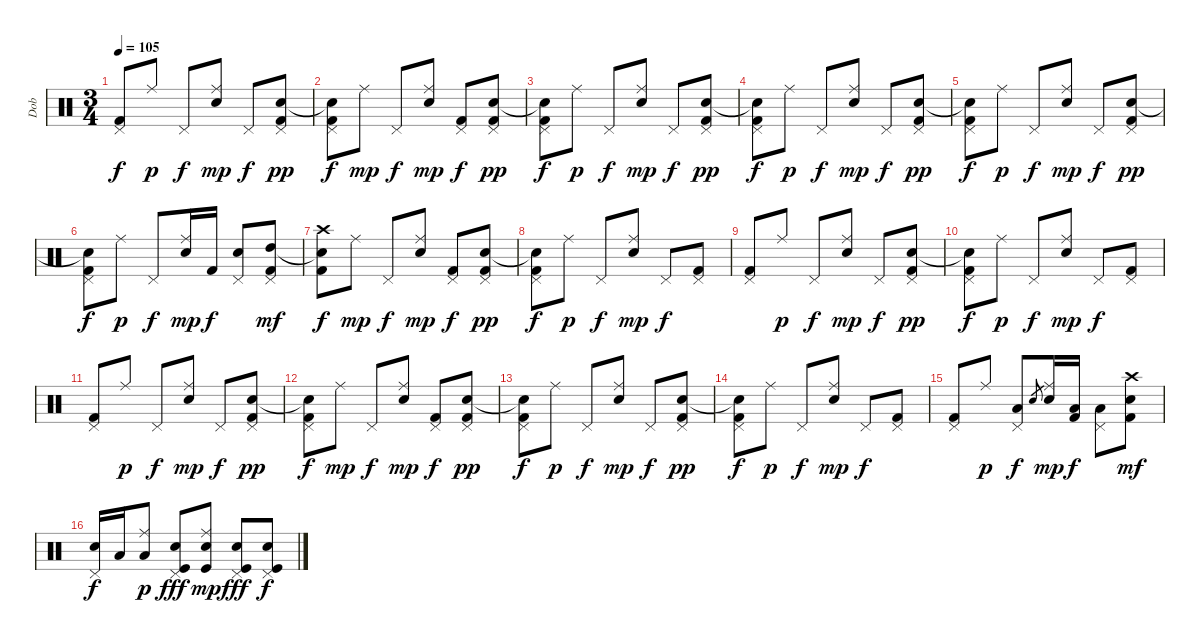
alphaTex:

\track ("Dob" "Dob") {instrument percussion}
\staff {score}
\articulation defaults
\ts (3 4)
\tempo 105
\clef neutral
\ks c
("Kick (hit) 2" "Pedal Hi-Hat (hit)").8{dy f} "Ride (middle)".8{dy p} "Pedal Hi-Hat (hit)".8{dy f} ("Electric Snare (hit)" "Ride (middle)").8{dy mp} "Pedal Hi-Hat (hit)".8{dy f} ("Electric Snare (hit)"{tr (40 32)} "Kick (hit) 2" "Pedal Hi-Hat (hit)").8{dy pp} |
("Snare (hit)"{t} "Kick (hit) 2" "Pedal Hi-Hat (hit)").8{dy f} "Ride (middle)".8{dy mp} "Pedal Hi-Hat (hit)".8{dy f} ("Electric Snare (hit)" "Ride (middle)").8{dy mp} ("Kick (hit) 2" "Pedal Hi-Hat (hit)").8{dy f} ("Electric Snare (hit)"{tr (40 32)} "Kick (hit) 2" "Pedal Hi-Hat (hit)").8{dy pp} |
("Snare (hit)"{t} "Kick (hit) 2" "Pedal Hi-Hat (hit)").8{dy f} "Ride (middle)".8{dy p} "Pedal Hi-Hat (hit)".8{dy f} ("Electric Snare (hit)" "Ride (middle)").8{dy mp} "Pedal Hi-Hat (hit)".8{dy f} ("Electric Snare (hit)"{tr (40 32)} "Kick (hit) 2" "Pedal Hi-Hat (hit)").8{dy pp} |
("Snare (hit)"{t} "Kick (hit) 2" "Pedal Hi-Hat (hit)").8{dy f} "Ride (middle)".8{dy p} "Pedal Hi-Hat (hit)".8{dy f} ("Electric Snare (hit)" "Ride (middle)").8{dy mp} "Pedal Hi-Hat (hit)".8{dy f} ("Electric Snare (hit)"{tr (40 32)} "Kick (hit) 2" "Pedal Hi-Hat (hit)").8{dy pp} |
("Snare (hit)"{t} "Kick (hit) 2" "Pedal Hi-Hat (hit)").8{dy f} "Ride (middle)".8{dy p} "Pedal Hi-Hat (hit)".8{dy f} ("Electric Snare (hit)" "Ride (middle)").8{dy mp} "Pedal Hi-Hat (hit)".8{dy f} ("Electric Snare (hit)"{tr (40 32)} "Kick (hit) 2" "Pedal Hi-Hat (hit)").8{dy pp} |
("Snare (hit)"{t} "Kick (hit) 2" "Pedal Hi-Hat (hit)").8{dy f} "Ride (middle)".8{dy p} "Pedal Hi-Hat (hit)".8{dy f} ("Electric Snare (hit)" "Ride (middle)").16{dy mp} "Kick (hit) 2".16{dy f} ("Electric Snare (hit)" "Pedal Hi-Hat (hit)").8 ("High Tom (hit)"{tr (48 16)} "Kick (hit) 2" "Pedal Hi-Hat (hit)").8{dy mf} |
("Snare (hit)"{t} "Kick (hit) 2" "Crash high (hit)").8{dy f} "Ride (middle)".8{dy mp} "Pedal Hi-Hat (hit)".8{dy f} ("Electric Snare (hit)" "Ride (middle)").8{dy mp} ("Kick (hit) 2" "Pedal Hi-Hat (hit)").8{dy f} ("Electric Snare (hit)"{tr (40 32)} "Kick (hit) 2" "Pedal Hi-Hat (hit)").8{dy pp} |
("Snare (hit)"{t} "Kick (hit) 2" "Pedal Hi-Hat (hit)").8{dy f} "Ride (middle)".8{dy p} "Pedal Hi-Hat (hit)".8{dy f} ("Electric Snare (hit)" "Ride (middle)").8{dy mp} "Pedal Hi-Hat (hit)".8{dy f} ("Kick (hit) 2" "Pedal Hi-Hat (hit)").8 |
("Kick (hit) 2" "Pedal Hi-Hat (hit)").8 "Ride (middle)".8{dy p} "Pedal Hi-Hat (hit)".8{dy f} ("Electric Snare (hit)" "Ride (middle)").8{dy mp} "Pedal Hi-Hat (hit)".8{dy f} ("Electric Snare (hit)"{tr (40 32)} "Kick (hit) 2" "Pedal Hi-Hat (hit)").8{dy pp} |
("Snare (hit)"{t} "Kick (hit) 2" "Pedal Hi-Hat (hit)").8{dy f} "Ride (middle)".8{dy p} "Pedal Hi-Hat (hit)".8{dy f} ("Electric Snare (hit)" "Ride (middle)").8{dy mp} "Pedal Hi-Hat (hit)".8{dy f} ("Kick (hit) 2" "Pedal Hi-Hat (hit)").8 |
("Kick (hit) 2" "Pedal Hi-Hat (hit)").8 "Ride (middle)".8{dy p} "Pedal Hi-Hat (hit)".8{dy f} ("Electric Snare (hit)" "Ride (middle)").8{dy mp} "Pedal Hi-Hat (hit)".8{dy f} ("Electric Snare (hit)"{tr (40 32)} "Kick (hit) 2" "Pedal Hi-Hat (hit)").8{dy pp} |
("Snare (hit)"{t} "Kick (hit) 2" "Pedal Hi-Hat (hit)").8{dy f} "Ride (middle)".8{dy mp} "Pedal Hi-Hat (hit)".8{dy f} ("Electric Snare (hit)" "Ride (middle)").8{dy mp} ("Kick (hit) 2" "Pedal Hi-Hat (hit)").8{dy f} ("Electric Snare (hit)"{tr (40 32)} "Kick (hit) 2" "Pedal Hi-Hat (hit)").8{dy pp} |
("Snare (hit)"{t} "Kick (hit) 2" "Pedal Hi-Hat (hit)").8{dy f} "Ride (middle)".8{dy p} "Pedal Hi-Hat (hit)".8{dy f} ("Electric Snare (hit)" "Ride (middle)").8{dy mp} "Pedal Hi-Hat (hit)".8{dy f} ("Electric Snare (hit)"{tr (40 32)} "Kick (hit) 2" "Pedal Hi-Hat (hit)").8{dy pp} |
("Snare (hit)"{t} "Kick (hit) 2" "Pedal Hi-Hat (hit)").8{dy f} "Ride (middle)".8{dy p} "Pedal Hi-Hat (hit)".8{dy f} ("Electric Snare (hit)" "Ride (middle)").8{dy mp} "Pedal Hi-Hat (hit)".8{dy f} ("Kick (hit) 2" "Pedal Hi-Hat (hit)").8 |
("Kick (hit) 2" "Pedal Hi-Hat (hit)").8 "Ride (middle)".8{dy p} ("Low Tom (hit)" "Pedal Hi-Hat (hit)").8{dy f} "Electric Snare (hit)".8{gr} ("Electric Snare (hit)" "Ride (middle)").16{dy mp} ("Low Tom (hit)" "Kick (hit) 2").16{dy f} ("Low Tom (hit)" "Pedal Hi-Hat (hit)").8 ("Electric Snare (hit)" "Kick (hit) 2" "Crash high (hit)").8{dy mf} |
("Electric Snare (hit)" "Pedal Hi-Hat (hit)").16{dy f} "Low Tom (hit)".16 ("Low Tom (hit)" "Ride (middle)").8{dy p} ("Electric Snare (hit)" "Kick (hit)" "Pedal Hi-Hat (hit)").8{dy fff} ("Electric Snare (hit)" "Kick (hit)" "Ride (middle)").8{dy mp} ("Electric Snare (hit)" "Kick (hit)" "Pedal Hi-Hat (hit)").8{dy fff} ("Electric Snare (hit)" "Kick (hit)" "Pedal Hi-Hat (hit)").8{dy f}
